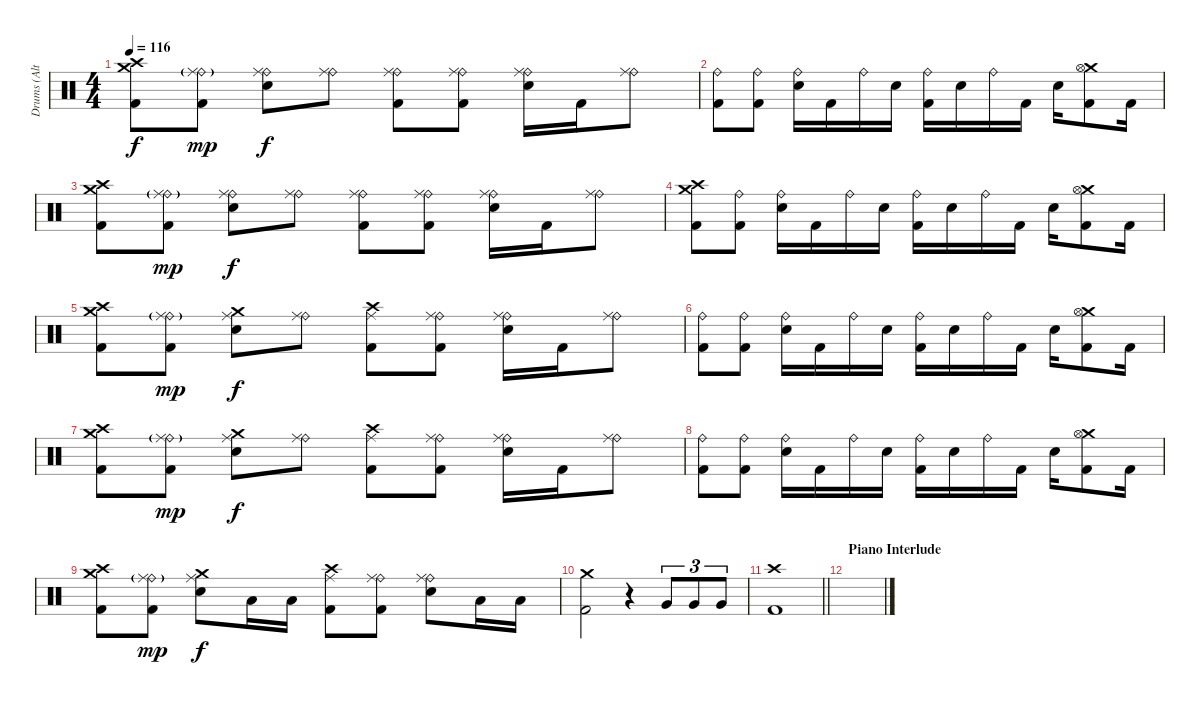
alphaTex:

\track ("Drums (Alternate - NOT ON MASTER)" "Drums (Alt") {mute instrument percussion}
\staff {score}
\articulation defaults
\ts (4 4)
\tempo 116
\clef neutral
\ks c
("Crash medium (hit)" "Crash high (hit)" "Kick (hit) 2").8{dy f} ("Ride (bell)" "Ride (middle)"{g} "Kick (hit) 2").8{dy mp} ("Ride (bell)" "Ride (middle)" "Snare (hit) 2").8{dy f} ("Ride (bell)" "Ride (middle)").8 ("Ride (bell)" "Ride (middle)" "Kick (hit) 2").8 ("Ride (bell)" "Ride (middle)" "Kick (hit) 2").8 ("Ride (bell)" "Ride (middle)" "Snare (hit) 2").16 "Kick (hit) 2".16 ("Ride (bell)" "Ride (middle)").8 |
("Ride (bell)" "Kick (hit) 2").8 ("Ride (bell)" "Kick (hit) 2").8 ("Ride (bell)" "Snare (hit) 2").16 "Kick (hit) 2".16 "Ride (bell)".16 "Snare (hit) 2".16 ("Ride (bell)" "Kick (hit) 2").16 "Snare (hit) 2".16 "Ride (bell)".16 "Kick (hit) 2".16 "Snare (hit) 2".16 ("Crash medium (hit)" "Hi-Hat (open)" "Kick (hit) 2").8 "Kick (hit) 2".16 |
("Crash medium (hit)" "Crash high (hit)" "Kick (hit) 2").8 ("Ride (bell)" "Ride (middle)"{g} "Kick (hit) 2").8{dy mp} ("Ride (bell)" "Ride (middle)" "Snare (hit) 2").8{dy f} ("Ride (bell)" "Ride (middle)").8 ("Ride (bell)" "Ride (middle)" "Kick (hit) 2").8 ("Ride (bell)" "Ride (middle)" "Kick (hit) 2").8 ("Ride (bell)" "Ride (middle)" "Snare (hit) 2").16 "Kick (hit) 2".16 ("Ride (bell)" "Ride (middle)").8 |
("Crash medium (hit)" "Crash high (hit)" "Kick (hit) 2").8 ("Ride (bell)" "Kick (hit) 2").8 ("Ride (bell)" "Snare (hit) 2").16 "Kick (hit) 2".16 "Ride (bell)".16 "Snare (hit) 2".16 ("Ride (bell)" "Kick (hit) 2").16 "Snare (hit) 2".16 "Ride (bell)".16 "Kick (hit) 2".16 "Snare (hit) 2".16 ("Crash medium (hit)" "Hi-Hat (open)" "Kick (hit) 2").8 "Kick (hit) 2".16 |
("Crash medium (hit)" "Crash high (hit)" "Kick (hit) 2").8 ("Ride (bell)" "Ride (middle)"{g} "Kick (hit) 2").8{dy mp} ("Crash medium (hit)" "Ride (middle)" "Snare (hit) 2").8{dy f} ("Ride (bell)" "Ride (middle)").8 ("Crash high (hit)" "Ride (middle)" "Kick (hit) 2").8 ("Ride (bell)" "Ride (middle)" "Kick (hit) 2").8 ("Ride (bell)" "Ride (middle)" "Snare (hit) 2").16 "Kick (hit) 2".16 ("Ride (bell)" "Ride (middle)").8 |
("Ride (bell)" "Kick (hit) 2").8 ("Ride (bell)" "Kick (hit) 2").8 ("Ride (bell)" "Snare (hit) 2").16 "Kick (hit) 2".16 "Ride (bell)".16 "Snare (hit) 2".16 ("Ride (bell)" "Kick (hit) 2").16 "Snare (hit) 2".16 "Ride (bell)".16 "Kick (hit) 2".16 "Snare (hit) 2".16 ("Crash medium (hit)" "Hi-Hat (open)" "Kick (hit) 2").8 "Kick (hit) 2".16 |
("Crash medium (hit)" "Crash high (hit)" "Kick (hit) 2").8 ("Ride (bell)" "Ride (middle)"{g} "Kick (hit) 2").8{dy mp} ("Crash medium (hit)" "Ride (middle)" "Snare (hit) 2").8{dy f} ("Ride (bell)" "Ride (middle)").8 ("Crash high (hit)" "Ride (middle)" "Kick (hit) 2").8 ("Ride (bell)" "Ride (middle)" "Kick (hit) 2").8 ("Ride (bell)" "Ride (middle)" "Snare (hit) 2").16 "Kick (hit) 2".16 ("Ride (bell)" "Ride (middle)").8 |
("Ride (bell)" "Kick (hit) 2").8 ("Ride (bell)" "Kick (hit) 2").8 ("Ride (bell)" "Snare (hit) 2").16 "Kick (hit) 2".16 "Ride (bell)".16 "Snare (hit) 2".16 ("Ride (bell)" "Kick (hit) 2").16 "Snare (hit) 2".16 "Ride (bell)".16 "Kick (hit) 2".16 "Snare (hit) 2".16 ("Crash medium (hit)" "Hi-Hat (open)" "Kick (hit) 2").8 "Kick (hit) 2".16 |
("Crash medium (hit)" "Crash high (hit)" "Kick (hit) 2").8 ("Ride (bell)" "Ride (middle)"{g} "Kick (hit) 2").8{dy mp} ("Crash medium (hit)" "Ride (middle)" "Snare (hit) 2").8{dy f} "Low Tom (hit)".16 "Low Tom (hit)".16 ("Crash high (hit)" "Ride (middle)" "Kick (hit) 2").8 ("Ride (bell)" "Ride (middle)" "Kick (hit) 2").8 ("Ride (bell)" "Ride (middle)" "Snare (hit) 2").8 "Low Tom (hit)".16 "Low Tom (hit)".16 |
("Crash medium (hit)" "Kick (hit) 2").2 r.4 "Very Low Tom (hit)".8{tu (3 2)} "Very Low Tom (hit)".8{tu (3 2)} "Very Low Tom (hit)".8{tu (3 2)} |
\barLineRight lightlight
("Crash high (hit)" "Kick (hit) 2").1 |
\section ("" "Piano Interlude")
